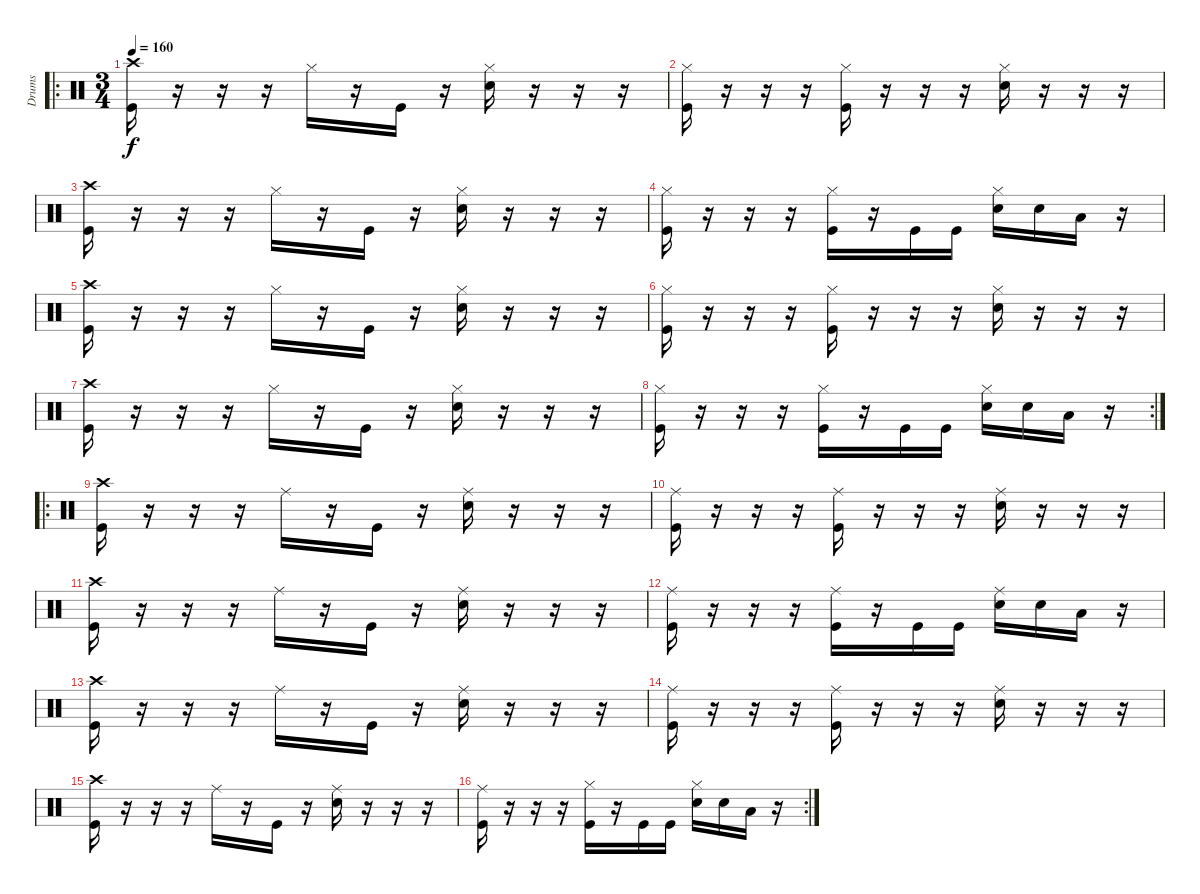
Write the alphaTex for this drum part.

\track ("Drums" "Drums") {instrument percussion}
\staff {score}
\articulation defaults
\ro
\ts (3 4)
\tempo 160
\clef neutral
\ks c
("Crash high (hit)" "Kick (hit)").16{dy f} r.16 r.16 r.16 "Hi-Hat (closed)".16 r.16 "Kick (hit)".16 r.16 ("Hi-Hat (closed)" "Snare (hit) 2").16 r.16 r.16 r.16 |
("Hi-Hat (closed)" "Kick (hit)").16 r.16 r.16 r.16 ("Hi-Hat (closed)" "Kick (hit)").16 r.16 r.16 r.16 ("Hi-Hat (closed)" "Snare (hit) 2").16 r.16 r.16 r.16 |
("Crash high (hit)" "Kick (hit)").16 r.16 r.16 r.16 "Hi-Hat (closed)".16 r.16 "Kick (hit)".16 r.16 ("Hi-Hat (closed)" "Snare (hit) 2").16 r.16 r.16 r.16 |
("Hi-Hat (closed)" "Kick (hit)").16 r.16 r.16 r.16 ("Hi-Hat (closed)" "Kick (hit)").16 r.16 "Kick (hit)".16 "Kick (hit)".16 ("Hi-Hat (closed)" "Snare (hit) 2").16 "Snare (hit) 2".16 "Low Tom (hit)".16 r.16 |
("Crash high (hit)" "Kick (hit)").16 r.16 r.16 r.16 "Hi-Hat (closed)".16 r.16 "Kick (hit)".16 r.16 ("Hi-Hat (closed)" "Snare (hit) 2").16 r.16 r.16 r.16 |
("Hi-Hat (closed)" "Kick (hit)").16 r.16 r.16 r.16 ("Hi-Hat (closed)" "Kick (hit)").16 r.16 r.16 r.16 ("Hi-Hat (closed)" "Snare (hit) 2").16 r.16 r.16 r.16 |
("Crash high (hit)" "Kick (hit)").16 r.16 r.16 r.16 "Hi-Hat (closed)".16 r.16 "Kick (hit)".16 r.16 ("Hi-Hat (closed)" "Snare (hit) 2").16 r.16 r.16 r.16 |
\rc 2
("Hi-Hat (closed)" "Kick (hit)").16 r.16 r.16 r.16 ("Hi-Hat (closed)" "Kick (hit)").16 r.16 "Kick (hit)".16 "Kick (hit)".16 ("Hi-Hat (closed)" "Snare (hit) 2").16 "Snare (hit) 2".16 "Low Tom (hit)".16 r.16 |
\ro
("Crash high (hit)" "Kick (hit)").16 r.16 r.16 r.16 "Ride (middle)".16 r.16 "Kick (hit)".16 r.16 ("Ride (middle)" "Snare (hit) 2").16 r.16 r.16 r.16 |
("Ride (middle)" "Kick (hit)").16 r.16 r.16 r.16 ("Ride (middle)" "Kick (hit)").16 r.16 r.16 r.16 ("Ride (middle)" "Snare (hit) 2").16 r.16 r.16 r.16 |
("Crash high (hit)" "Kick (hit)").16 r.16 r.16 r.16 "Ride (middle)".16 r.16 "Kick (hit)".16 r.16 ("Ride (middle)" "Snare (hit) 2").16 r.16 r.16 r.16 |
("Ride (middle)" "Kick (hit)").16 r.16 r.16 r.16 ("Ride (middle)" "Kick (hit)").16 r.16 "Kick (hit)".16 "Kick (hit)".16 ("Ride (middle)" "Snare (hit) 2").16 "Snare (hit) 2".16 "Low Tom (hit)".16 r.16 |
("Crash high (hit)" "Kick (hit)").16 r.16 r.16 r.16 "Ride (middle)".16 r.16 "Kick (hit)".16 r.16 ("Ride (middle)" "Snare (hit) 2").16 r.16 r.16 r.16 |
("Ride (middle)" "Kick (hit)").16 r.16 r.16 r.16 ("Ride (middle)" "Kick (hit)").16 r.16 r.16 r.16 ("Ride (middle)" "Snare (hit) 2").16 r.16 r.16 r.16 |
("Crash high (hit)" "Kick (hit)").16 r.16 r.16 r.16 "Ride (middle)".16 r.16 "Kick (hit)".16 r.16 ("Ride (middle)" "Snare (hit) 2").16 r.16 r.16 r.16 |
\rc 2
("Ride (middle)" "Kick (hit)").16 r.16 r.16 r.16 ("Hi-Hat (closed)" "Kick (hit)").16 r.16 "Kick (hit)".16 "Kick (hit)".16 ("Hi-Hat (closed)" "Snare (hit) 2").16 "Snare (hit) 2".16 "Low Tom (hit)".16 r.16
